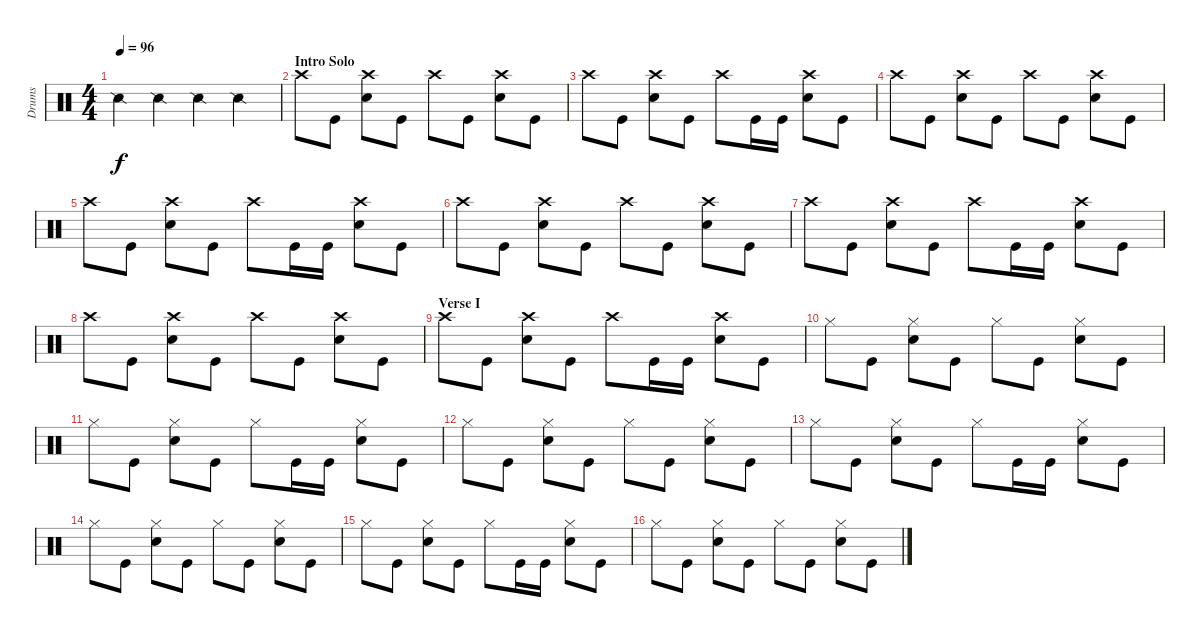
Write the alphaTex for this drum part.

\track ("Drums" "Drums") {instrument percussion}
\staff {score}
\articulation defaults
\ts (4 4)
\tempo 96
\clef neutral
\ks c "Snare (side stick) 2".4{dy f} "Snare (side stick) 2".4 "Snare (side stick) 2".4 "Snare (side stick) 2".4
|
\section ("" "Intro Solo")
"Crash high (hit)".8 "Kick (hit)".8 ("Snare (hit) 2" "Crash high (hit)").8 "Kick (hit)".8 "Crash high (hit)".8 "Kick (hit)".8 ("Snare (hit) 2" "Crash high (hit)").8 "Kick (hit)".8 |
"Crash high (hit)".8 "Kick (hit)".8 ("Snare (hit) 2" "Crash high (hit)").8 "Kick (hit)".8 "Crash high (hit)".8 "Kick (hit)".16 "Kick (hit)".16 ("Snare (hit) 2" "Crash high (hit)").8 "Kick (hit)".8 |
"Crash high (hit)".8 "Kick (hit)".8 ("Snare (hit) 2" "Crash high (hit)").8 "Kick (hit)".8 "Crash high (hit)".8 "Kick (hit)".8 ("Snare (hit) 2" "Crash high (hit)").8 "Kick (hit)".8 |
"Crash high (hit)".8 "Kick (hit)".8 ("Snare (hit) 2" "Crash high (hit)").8 "Kick (hit)".8 "Crash high (hit)".8 "Kick (hit)".16 "Kick (hit)".16 ("Snare (hit) 2" "Crash high (hit)").8 "Kick (hit)".8 |
"Crash high (hit)".8 "Kick (hit)".8 ("Snare (hit) 2" "Crash high (hit)").8 "Kick (hit)".8 "Crash high (hit)".8 "Kick (hit)".8 ("Snare (hit) 2" "Crash high (hit)").8 "Kick (hit)".8 |
"Crash high (hit)".8 "Kick (hit)".8 ("Snare (hit) 2" "Crash high (hit)").8 "Kick (hit)".8 "Crash high (hit)".8 "Kick (hit)".16 "Kick (hit)".16 ("Snare (hit) 2" "Crash high (hit)").8 "Kick (hit)".8 |
"Crash high (hit)".8 "Kick (hit)".8 ("Snare (hit) 2" "Crash high (hit)").8 "Kick (hit)".8 "Crash high (hit)".8 "Kick (hit)".8 ("Snare (hit) 2" "Crash high (hit)").8 "Kick (hit)".8 |
\section ("" "Verse I")
"Crash high (hit)".8 "Kick (hit)".8 ("Snare (hit) 2" "Crash high (hit)").8 "Kick (hit)".8 "Crash high (hit)".8 "Kick (hit)".16 "Kick (hit)".16 ("Snare (hit) 2" "Crash high (hit)").8 "Kick (hit)".8 |
"Hi-Hat (closed)".8 "Kick (hit)".8 ("Snare (hit) 2" "Hi-Hat (closed)").8 "Kick (hit)".8 "Hi-Hat (closed)".8 "Kick (hit)".8 ("Snare (hit) 2" "Hi-Hat (closed)").8 "Kick (hit)".8 |
"Hi-Hat (closed)".8 "Kick (hit)".8 ("Snare (hit) 2" "Hi-Hat (closed)").8 "Kick (hit)".8 "Hi-Hat (closed)".8 "Kick (hit)".16 "Kick (hit)".16 ("Snare (hit) 2" "Hi-Hat (closed)").8 "Kick (hit)".8 |
"Hi-Hat (closed)".8 "Kick (hit)".8 ("Snare (hit) 2" "Hi-Hat (closed)").8 "Kick (hit)".8 "Hi-Hat (closed)".8 "Kick (hit)".8 ("Snare (hit) 2" "Hi-Hat (closed)").8 "Kick (hit)".8 |
"Hi-Hat (closed)".8 "Kick (hit)".8 ("Snare (hit) 2" "Hi-Hat (closed)").8 "Kick (hit)".8 "Hi-Hat (closed)".8 "Kick (hit)".16 "Kick (hit)".16 ("Snare (hit) 2" "Hi-Hat (closed)").8 "Kick (hit)".8 |
"Hi-Hat (closed)".8 "Kick (hit)".8 ("Snare (hit) 2" "Hi-Hat (closed)").8 "Kick (hit)".8 "Hi-Hat (closed)".8 "Kick (hit)".8 ("Snare (hit) 2" "Hi-Hat (closed)").8 "Kick (hit)".8 |
"Hi-Hat (closed)".8 "Kick (hit)".8 ("Snare (hit) 2" "Hi-Hat (closed)").8 "Kick (hit)".8 "Hi-Hat (closed)".8 "Kick (hit)".16 "Kick (hit)".16 ("Snare (hit) 2" "Hi-Hat (closed)").8 "Kick (hit)".8 |
"Hi-Hat (closed)".8 "Kick (hit)".8 ("Snare (hit) 2" "Hi-Hat (closed)").8 "Kick (hit)".8 "Hi-Hat (closed)".8 "Kick (hit)".8 ("Snare (hit) 2" "Hi-Hat (closed)").8 "Kick (hit)".8
